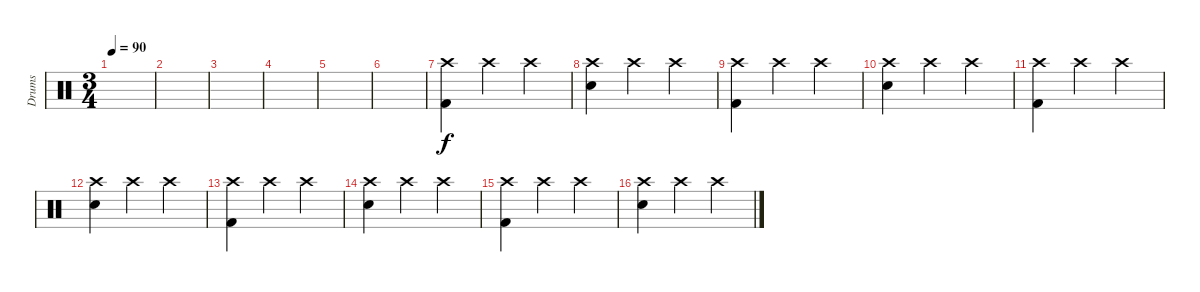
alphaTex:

\track ("Drums" "Drums") {instrument percussion}
\staff {score}
\articulation defaults
\ts (3 4)
\tempo 90
\clef neutral
\ks c
|
|
|
|
|
|
("Crash high (hit)" "Kick (hit) 2").4 "Crash high (hit)".4 "Crash high (hit)".4 |
("Crash high (hit)" "Snare (hit) 2").4 "Crash high (hit)".4 "Crash high (hit)".4 |
("Crash high (hit)" "Kick (hit) 2").4 "Crash high (hit)".4 "Crash high (hit)".4 |
("Crash high (hit)" "Snare (hit) 2").4 "Crash high (hit)".4 "Crash high (hit)".4 |
("Crash high (hit)" "Kick (hit) 2").4 "Crash high (hit)".4 "Crash high (hit)".4 |
("Crash high (hit)" "Snare (hit) 2").4 "Crash high (hit)".4 "Crash high (hit)".4 |
("Crash high (hit)" "Kick (hit) 2").4 "Crash high (hit)".4 "Crash high (hit)".4 |
("Crash high (hit)" "Snare (hit) 2").4 "Crash high (hit)".4 "Crash high (hit)".4 |
("Crash high (hit)" "Kick (hit) 2").4 "Crash high (hit)".4 "Crash high (hit)".4 |
("Crash high (hit)" "Snare (hit) 2").4 "Crash high (hit)".4 "Crash high (hit)".4
